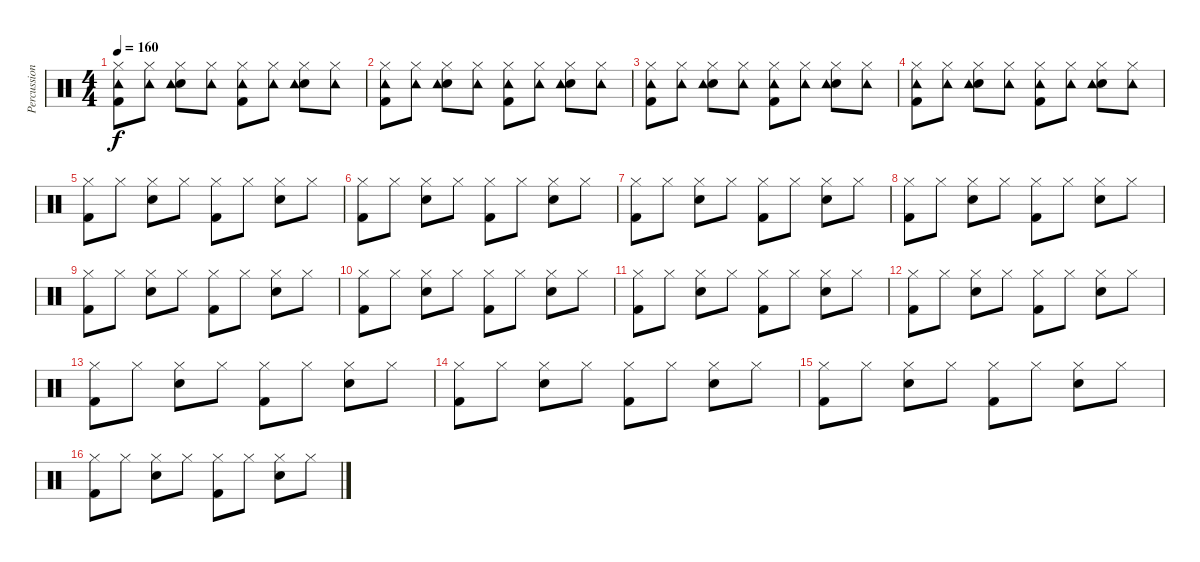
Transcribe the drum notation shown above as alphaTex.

\track ("Percussion" "Percussion") {instrument percussion}
\staff {score}
\articulation defaults
\ts (4 4)
\tempo 160
\clef neutral
\ks c
("Hi-Hat (closed)" "Tambourine (hit)" "Kick (hit) 2").8{dy f} ("Hi-Hat (closed)" "Tambourine (hit)").8 ("Hi-Hat (closed)" "Snare (hit) 2" "Tambourine (hit)").8 ("Hi-Hat (closed)" "Tambourine (hit)").8 ("Hi-Hat (closed)" "Tambourine (hit)" "Kick (hit) 2").8 ("Hi-Hat (closed)" "Tambourine (hit)").8 ("Hi-Hat (closed)" "Snare (hit) 2" "Tambourine (hit)").8 ("Hi-Hat (closed)" "Tambourine (hit)").8 |
("Hi-Hat (closed)" "Tambourine (hit)" "Kick (hit) 2").8 ("Hi-Hat (closed)" "Tambourine (hit)").8 ("Hi-Hat (closed)" "Snare (hit) 2" "Tambourine (hit)").8 ("Hi-Hat (closed)" "Tambourine (hit)").8 ("Hi-Hat (closed)" "Tambourine (hit)" "Kick (hit) 2").8 ("Hi-Hat (closed)" "Tambourine (hit)").8 ("Hi-Hat (closed)" "Snare (hit) 2" "Tambourine (hit)").8 ("Hi-Hat (closed)" "Tambourine (hit)").8 |
("Hi-Hat (closed)" "Tambourine (hit)" "Kick (hit) 2").8 ("Hi-Hat (closed)" "Tambourine (hit)").8 ("Hi-Hat (closed)" "Snare (hit) 2" "Tambourine (hit)").8 ("Hi-Hat (closed)" "Tambourine (hit)").8 ("Hi-Hat (closed)" "Tambourine (hit)" "Kick (hit) 2").8 ("Hi-Hat (closed)" "Tambourine (hit)").8 ("Hi-Hat (closed)" "Snare (hit) 2" "Tambourine (hit)").8 ("Hi-Hat (closed)" "Tambourine (hit)").8 |
("Hi-Hat (closed)" "Tambourine (hit)" "Kick (hit) 2").8 ("Hi-Hat (closed)" "Tambourine (hit)").8 ("Hi-Hat (closed)" "Snare (hit) 2" "Tambourine (hit)").8 ("Hi-Hat (closed)" "Tambourine (hit)").8 ("Hi-Hat (closed)" "Tambourine (hit)" "Kick (hit) 2").8 ("Hi-Hat (closed)" "Tambourine (hit)").8 ("Hi-Hat (closed)" "Snare (hit) 2" "Tambourine (hit)").8 ("Hi-Hat (closed)" "Tambourine (hit)").8 |
("Hi-Hat (closed)" "Kick (hit) 2").8 "Hi-Hat (closed)".8 ("Hi-Hat (closed)" "Snare (hit) 2").8 "Hi-Hat (closed)".8 ("Hi-Hat (closed)" "Kick (hit) 2").8 "Hi-Hat (closed)".8 ("Hi-Hat (closed)" "Snare (hit) 2").8 "Hi-Hat (closed)".8 |
("Hi-Hat (closed)" "Kick (hit) 2").8 "Hi-Hat (closed)".8 ("Hi-Hat (closed)" "Snare (hit) 2").8 "Hi-Hat (closed)".8 ("Hi-Hat (closed)" "Kick (hit) 2").8 "Hi-Hat (closed)".8 ("Hi-Hat (closed)" "Snare (hit) 2").8 "Hi-Hat (closed)".8 |
("Hi-Hat (closed)" "Kick (hit) 2").8 "Hi-Hat (closed)".8 ("Hi-Hat (closed)" "Snare (hit) 2").8 "Hi-Hat (closed)".8 ("Hi-Hat (closed)" "Kick (hit) 2").8 "Hi-Hat (closed)".8 ("Hi-Hat (closed)" "Snare (hit) 2").8 "Hi-Hat (closed)".8 |
("Hi-Hat (closed)" "Kick (hit) 2").8 "Hi-Hat (closed)".8 ("Hi-Hat (closed)" "Snare (hit) 2").8 "Hi-Hat (closed)".8 ("Hi-Hat (closed)" "Kick (hit) 2").8 "Hi-Hat (closed)".8 ("Hi-Hat (closed)" "Snare (hit) 2").8 "Hi-Hat (closed)".8 |
("Hi-Hat (closed)" "Kick (hit) 2").8 "Hi-Hat (closed)".8 ("Hi-Hat (closed)" "Snare (hit) 2").8 "Hi-Hat (closed)".8 ("Hi-Hat (closed)" "Kick (hit) 2").8 "Hi-Hat (closed)".8 ("Hi-Hat (closed)" "Snare (hit) 2").8 "Hi-Hat (closed)".8 |
("Hi-Hat (closed)" "Kick (hit) 2").8 "Hi-Hat (closed)".8 ("Hi-Hat (closed)" "Snare (hit) 2").8 "Hi-Hat (closed)".8 ("Hi-Hat (closed)" "Kick (hit) 2").8 "Hi-Hat (closed)".8 ("Hi-Hat (closed)" "Snare (hit) 2").8 "Hi-Hat (closed)".8 |
("Hi-Hat (closed)" "Kick (hit) 2").8 "Hi-Hat (closed)".8 ("Hi-Hat (closed)" "Snare (hit) 2").8 "Hi-Hat (closed)".8 ("Hi-Hat (closed)" "Kick (hit) 2").8 "Hi-Hat (closed)".8 ("Hi-Hat (closed)" "Snare (hit) 2").8 "Hi-Hat (closed)".8 |
("Hi-Hat (closed)" "Kick (hit) 2").8 "Hi-Hat (closed)".8 ("Hi-Hat (closed)" "Snare (hit) 2").8 "Hi-Hat (closed)".8 ("Hi-Hat (closed)" "Kick (hit) 2").8 "Hi-Hat (closed)".8 ("Hi-Hat (closed)" "Snare (hit) 2").8 "Hi-Hat (closed)".8 |
("Hi-Hat (closed)" "Kick (hit) 2").8 "Hi-Hat (closed)".8 ("Hi-Hat (closed)" "Snare (hit) 2").8 "Hi-Hat (closed)".8 ("Hi-Hat (closed)" "Kick (hit) 2").8 "Hi-Hat (closed)".8 ("Hi-Hat (closed)" "Snare (hit) 2").8 "Hi-Hat (closed)".8 |
("Hi-Hat (closed)" "Kick (hit) 2").8 "Hi-Hat (closed)".8 ("Hi-Hat (closed)" "Snare (hit) 2").8 "Hi-Hat (closed)".8 ("Hi-Hat (closed)" "Kick (hit) 2").8 "Hi-Hat (closed)".8 ("Hi-Hat (closed)" "Snare (hit) 2").8 "Hi-Hat (closed)".8 |
("Hi-Hat (closed)" "Kick (hit) 2").8 "Hi-Hat (closed)".8 ("Hi-Hat (closed)" "Snare (hit) 2").8 "Hi-Hat (closed)".8 ("Hi-Hat (closed)" "Kick (hit) 2").8 "Hi-Hat (closed)".8 ("Hi-Hat (closed)" "Snare (hit) 2").8 "Hi-Hat (closed)".8 |
("Hi-Hat (closed)" "Kick (hit) 2").8 "Hi-Hat (closed)".8 ("Hi-Hat (closed)" "Snare (hit) 2").8 "Hi-Hat (closed)".8 ("Hi-Hat (closed)" "Kick (hit) 2").8 "Hi-Hat (closed)".8 ("Hi-Hat (closed)" "Snare (hit) 2").8 "Hi-Hat (closed)".8
